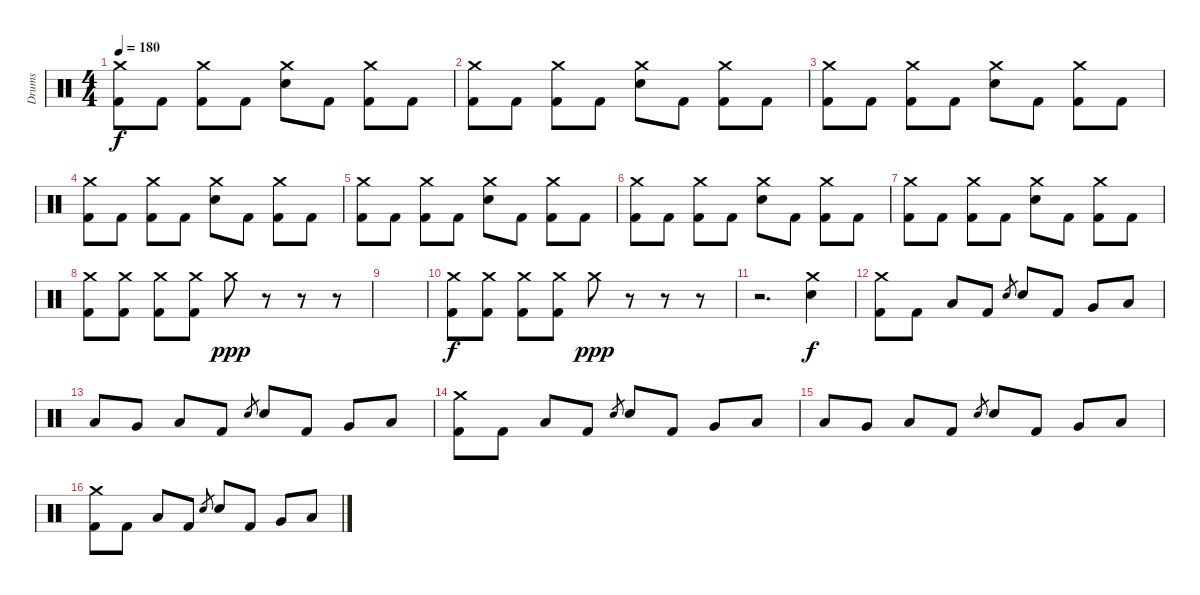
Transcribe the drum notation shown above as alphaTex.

\track ("Drums" "Drums") {instrument percussion}
\staff {score}
\articulation defaults
\ts (4 4)
\tempo 180
\clef neutral
\ks c
("Crash medium (hit)" "Kick (hit) 2").8{dy f} "Kick (hit) 2".8 ("Crash medium (hit)" "Kick (hit) 2").8 "Kick (hit) 2".8 ("Crash medium (hit)" "Electric Snare (hit)").8 "Kick (hit) 2".8 ("Crash medium (hit)" "Kick (hit) 2").8 "Kick (hit) 2".8 |
("Crash medium (hit)" "Kick (hit) 2").8 "Kick (hit) 2".8 ("Crash medium (hit)" "Kick (hit) 2").8 "Kick (hit) 2".8 ("Crash medium (hit)" "Electric Snare (hit)").8 "Kick (hit) 2".8 ("Crash medium (hit)" "Kick (hit) 2").8 "Kick (hit) 2".8 |
("Crash medium (hit)" "Kick (hit) 2").8 "Kick (hit) 2".8 ("Crash medium (hit)" "Kick (hit) 2").8 "Kick (hit) 2".8 ("Crash medium (hit)" "Electric Snare (hit)").8 "Kick (hit) 2".8 ("Crash medium (hit)" "Kick (hit) 2").8 "Kick (hit) 2".8 |
("Crash medium (hit)" "Kick (hit) 2").8 "Kick (hit) 2".8 ("Crash medium (hit)" "Kick (hit) 2").8 "Kick (hit) 2".8 ("Crash medium (hit)" "Electric Snare (hit)").8 "Kick (hit) 2".8 ("Crash medium (hit)" "Kick (hit) 2").8 "Kick (hit) 2".8 |
("Crash medium (hit)" "Kick (hit) 2").8 "Kick (hit) 2".8 ("Crash medium (hit)" "Kick (hit) 2").8 "Kick (hit) 2".8 ("Crash medium (hit)" "Electric Snare (hit)").8 "Kick (hit) 2".8 ("Crash medium (hit)" "Kick (hit) 2").8 "Kick (hit) 2".8 |
("Crash medium (hit)" "Kick (hit) 2").8 "Kick (hit) 2".8 ("Crash medium (hit)" "Kick (hit) 2").8 "Kick (hit) 2".8 ("Crash medium (hit)" "Electric Snare (hit)").8 "Kick (hit) 2".8 ("Crash medium (hit)" "Kick (hit) 2").8 "Kick (hit) 2".8 |
("Crash medium (hit)" "Kick (hit) 2").8 "Kick (hit) 2".8 ("Crash medium (hit)" "Kick (hit) 2").8 "Kick (hit) 2".8 ("Crash medium (hit)" "Electric Snare (hit)").8 "Kick (hit) 2".8 ("Crash medium (hit)" "Kick (hit) 2").8 "Kick (hit) 2".8 |
("Crash medium (hit)" "Kick (hit) 2").8 ("Crash medium (hit)" "Kick (hit) 2").8 ("Crash medium (hit)" "Kick (hit) 2").8 ("Crash medium (hit)" "Kick (hit) 2").8 "Crash medium (hit)".8{dy ppp} r.8 r.8 r.8 |
|
("Crash medium (hit)" "Kick (hit) 2").8{dy f} ("Crash medium (hit)" "Kick (hit) 2").8 ("Crash medium (hit)" "Kick (hit) 2").8 ("Crash medium (hit)" "Kick (hit) 2").8 "Crash medium (hit)".8{dy ppp} r.8 r.8 r.8 |
r.2{d} ("Crash medium (hit)" "Electric Snare (hit)").4{dy f} |
("Crash medium (hit)" "Kick (hit) 2").8 "Kick (hit) 2".8 "Low Floor Tom (hit)".8 "Kick (hit) 2".8 "Electric Snare (hit)".8{gr} "Electric Snare (hit)".8 "Kick (hit) 2".8 "Very Low Tom (hit)".8 "Low Floor Tom (hit)".8 |
"Low Tom (hit)".8 "Very Low Tom (hit)".8 "Low Floor Tom (hit)".8 "Kick (hit) 2".8 "Electric Snare (hit)".8{gr} "Electric Snare (hit)".8 "Kick (hit) 2".8 "Very Low Tom (hit)".8 "Low Floor Tom (hit)".8 |
("Crash medium (hit)" "Kick (hit) 2").8 "Kick (hit) 2".8 "Low Floor Tom (hit)".8 "Kick (hit) 2".8 "Electric Snare (hit)".8{gr} "Electric Snare (hit)".8 "Kick (hit) 2".8 "Very Low Tom (hit)".8 "Low Floor Tom (hit)".8 |
"Low Tom (hit)".8 "Very Low Tom (hit)".8 "Low Floor Tom (hit)".8 "Kick (hit) 2".8 "Electric Snare (hit)".8{gr} "Electric Snare (hit)".8 "Kick (hit) 2".8 "Very Low Tom (hit)".8 "Low Floor Tom (hit)".8 |
("Crash medium (hit)" "Kick (hit) 2").8 "Kick (hit) 2".8 "Low Floor Tom (hit)".8 "Kick (hit) 2".8 "Electric Snare (hit)".8{gr} "Electric Snare (hit)".8 "Kick (hit) 2".8 "Very Low Tom (hit)".8 "Low Floor Tom (hit)".8
